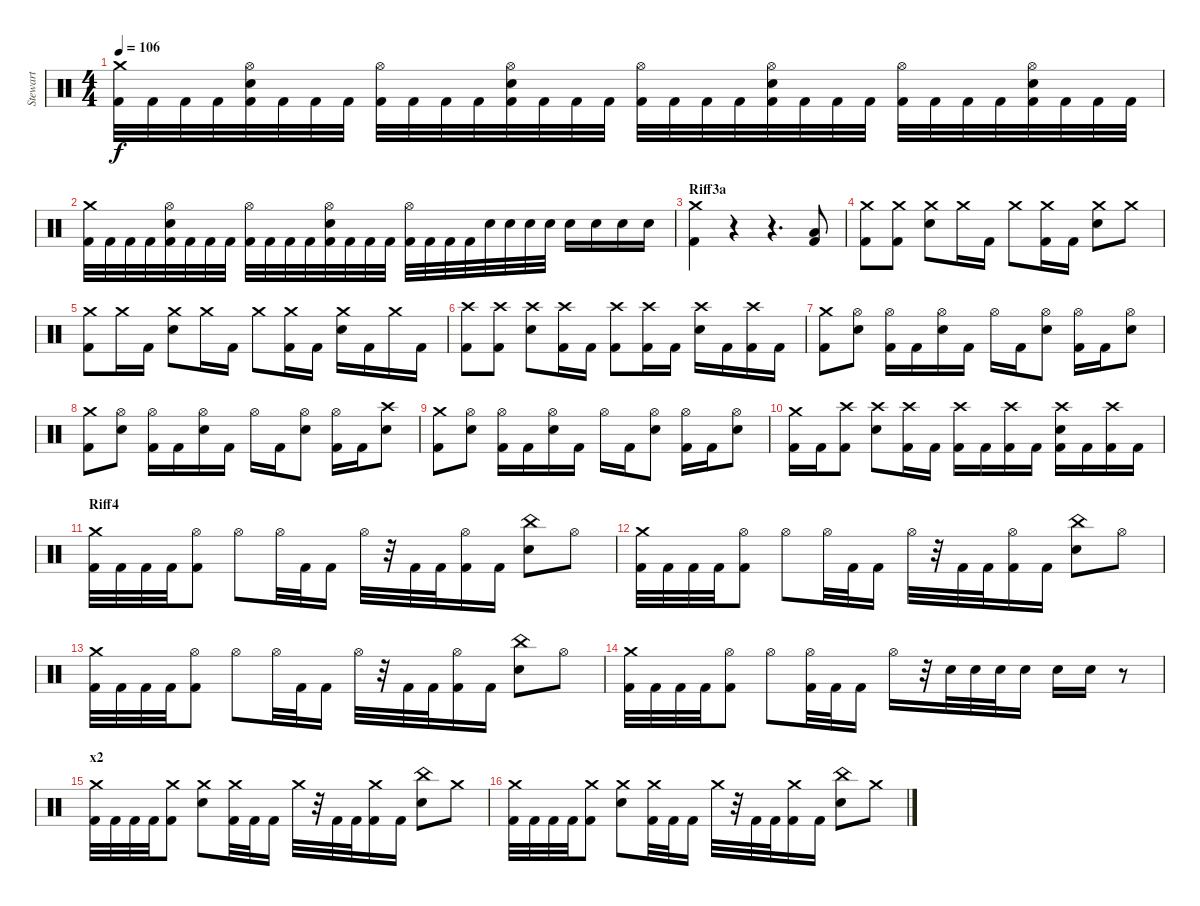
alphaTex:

\track ("Stewart" "Stewart") {instrument percussion}
\staff {score}
\articulation defaults
\ts (4 4)
\tempo 106
\clef neutral
\ks c
("Crash medium (hit)" "Kick (hit) 2").32{dy f} "Kick (hit) 2".32 "Kick (hit) 2".32 "Kick (hit) 2".32 ("Hi-Hat (open)" "Electric Snare (hit)" "Kick (hit) 2").32 "Kick (hit) 2".32 "Kick (hit) 2".32 "Kick (hit) 2".32 ("Hi-Hat (open)" "Kick (hit) 2").32 "Kick (hit) 2".32 "Kick (hit) 2".32 "Kick (hit) 2".32 ("Hi-Hat (open)" "Electric Snare (hit)" "Kick (hit) 2").32 "Kick (hit) 2".32 "Kick (hit) 2".32 "Kick (hit) 2".32 ("Hi-Hat (open)" "Kick (hit) 2").32 "Kick (hit) 2".32 "Kick (hit) 2".32 "Kick (hit) 2".32 ("Hi-Hat (open)" "Electric Snare (hit)" "Kick (hit) 2").32 "Kick (hit) 2".32 "Kick (hit) 2".32 "Kick (hit) 2".32 ("Hi-Hat (open)" "Kick (hit) 2").32 "Kick (hit) 2".32 "Kick (hit) 2".32 "Kick (hit) 2".32 ("Hi-Hat (open)" "Electric Snare (hit)" "Kick (hit) 2").32 "Kick (hit) 2".32 "Kick (hit) 2".32 "Kick (hit) 2".32 |
("Crash medium (hit)" "Kick (hit) 2").32 "Kick (hit) 2".32 "Kick (hit) 2".32 "Kick (hit) 2".32 ("Hi-Hat (open)" "Electric Snare (hit)" "Kick (hit) 2").32 "Kick (hit) 2".32 "Kick (hit) 2".32 "Kick (hit) 2".32 ("Hi-Hat (open)" "Kick (hit) 2").32 "Kick (hit) 2".32 "Kick (hit) 2".32 "Kick (hit) 2".32 ("Hi-Hat (open)" "Electric Snare (hit)" "Kick (hit) 2").32 "Kick (hit) 2".32 "Kick (hit) 2".32 "Kick (hit) 2".32 ("Hi-Hat (open)" "Kick (hit) 2").32 "Kick (hit) 2".32 "Kick (hit) 2".32 "Kick (hit) 2".32 "Electric Snare (hit)".32 "Electric Snare (hit)".32 "Electric Snare (hit)".32 "Electric Snare (hit)".32 "Electric Snare (hit)".16 "Electric Snare (hit)".16 "Electric Snare (hit)".16 "Electric Snare (hit)".16 |
\section ("" "Riff3a")
("Crash medium (hit)" "Kick (hit) 2").4 r.4 r.4{d} ("Low Tom (hit)" "Kick (hit) 2").8 |
("Crash medium (hit)" "Kick (hit) 2").8 ("Crash medium (hit)" "Kick (hit) 2").8 ("Crash medium (hit)" "Electric Snare (hit)").8 "Crash medium (hit)".16 "Kick (hit) 2".16 "Crash medium (hit)".8 ("Crash medium (hit)" "Kick (hit) 2").16 "Kick (hit) 2".16 ("Crash medium (hit)" "Electric Snare (hit)").8 "Crash medium (hit)".8 |
("Crash medium (hit)" "Kick (hit) 2").8 "Crash medium (hit)".16 "Kick (hit) 2".16 ("Crash medium (hit)" "Electric Snare (hit)").8 "Crash medium (hit)".16 "Kick (hit) 2".16 "Crash medium (hit)".8 ("Crash medium (hit)" "Kick (hit) 2").16 "Kick (hit) 2".16 ("Crash medium (hit)" "Electric Snare (hit)").16 "Kick (hit) 2".16 "Crash medium (hit)".16 "Kick (hit) 2".16 |
("Crash high (hit)" "Kick (hit) 2").8 ("Crash high (hit)" "Kick (hit) 2").8 ("Crash high (hit)" "Electric Snare (hit)").8 ("Crash high (hit)" "Kick (hit) 2").16 "Kick (hit) 2".16 ("Crash high (hit)" "Kick (hit) 2").8 ("Crash high (hit)" "Kick (hit) 2").16 "Kick (hit) 2".16 ("Crash high (hit)" "Electric Snare (hit)").16 "Kick (hit) 2".16 ("Crash high (hit)" "Kick (hit) 2").16 "Kick (hit) 2".16 |
("Crash medium (hit)" "Kick (hit) 2").8 ("Hi-Hat (open)" "Electric Snare (hit)").8 ("Hi-Hat (open)" "Kick (hit) 2").16 "Kick (hit) 2".16 ("Hi-Hat (open)" "Electric Snare (hit)").16 "Kick (hit) 2".16 "Hi-Hat (open)".16 "Kick (hit) 2".16 ("Hi-Hat (open)" "Electric Snare (hit)").8 ("Hi-Hat (open)" "Kick (hit) 2").16 "Kick (hit) 2".16 ("Hi-Hat (open)" "Electric Snare (hit)").8 |
("Crash medium (hit)" "Kick (hit) 2").8 ("Hi-Hat (open)" "Electric Snare (hit)").8 ("Hi-Hat (open)" "Kick (hit) 2").16 "Kick (hit) 2".16 ("Hi-Hat (open)" "Electric Snare (hit)").16 "Kick (hit) 2".16 "Hi-Hat (open)".16 "Kick (hit) 2".16 ("Hi-Hat (open)" "Electric Snare (hit)").8 ("Hi-Hat (open)" "Kick (hit) 2").16 "Kick (hit) 2".16 ("Crash high (hit)" "Electric Snare (hit)").8 |
("Crash medium (hit)" "Kick (hit) 2").8 ("Hi-Hat (open)" "Electric Snare (hit)").8 ("Hi-Hat (open)" "Kick (hit) 2").16 "Kick (hit) 2".16 ("Hi-Hat (open)" "Electric Snare (hit)").16 "Kick (hit) 2".16 "Hi-Hat (open)".16 "Kick (hit) 2".16 ("Hi-Hat (open)" "Electric Snare (hit)").8 ("Hi-Hat (open)" "Kick (hit) 2").16 "Kick (hit) 2".16 ("Hi-Hat (open)" "Electric Snare (hit)").8 |
("Crash medium (hit)" "Kick (hit) 2").16 "Kick (hit) 2".16 ("Crash high (hit)" "Kick (hit) 2").8 ("Crash high (hit)" "Electric Snare (hit)").8 ("Crash high (hit)" "Kick (hit) 2").16 "Kick (hit) 2".16 ("Crash high (hit)" "Kick (hit) 2").16 "Kick (hit) 2".16 ("Crash high (hit)" "Kick (hit) 2").16 "Kick (hit) 2".16 ("Crash high (hit)" "Electric Snare (hit)" "Kick (hit) 2").16 "Kick (hit) 2".16 ("Crash high (hit)" "Kick (hit) 2").16 "Kick (hit) 2".16 |
\section ("" "Riff4")
("Crash medium (hit)" "Kick (hit) 2").32 "Kick (hit) 2".32 "Kick (hit) 2".32 "Kick (hit) 2".32 ("Hi-Hat (open)" "Kick (hit) 2").8 "Hi-Hat (open)".8 "Hi-Hat (open)".32 "Kick (hit) 2".32 "Kick (hit) 2".16 "Hi-Hat (open)".32 r.32 "Kick (hit) 2".32 "Kick (hit) 2".32 ("Hi-Hat (open)" "Kick (hit) 2").16 "Kick (hit) 2".16 ("China (hit)" "Electric Snare (hit)").8 "Hi-Hat (open)".8 |
("Crash medium (hit)" "Kick (hit) 2").32 "Kick (hit) 2".32 "Kick (hit) 2".32 "Kick (hit) 2".32 ("Hi-Hat (open)" "Kick (hit) 2").8 "Hi-Hat (open)".8 "Hi-Hat (open)".32 "Kick (hit) 2".32 "Kick (hit) 2".16 "Hi-Hat (open)".32 r.32 "Kick (hit) 2".32 "Kick (hit) 2".32 ("Hi-Hat (open)" "Kick (hit) 2").16 "Kick (hit) 2".16 ("China (hit)" "Electric Snare (hit)").8 "Hi-Hat (open)".8 |
("Crash medium (hit)" "Kick (hit) 2").32 "Kick (hit) 2".32 "Kick (hit) 2".32 "Kick (hit) 2".32 ("Hi-Hat (open)" "Kick (hit) 2").8 "Hi-Hat (open)".8 "Hi-Hat (open)".32 "Kick (hit) 2".32 "Kick (hit) 2".16 "Hi-Hat (open)".32 r.32 "Kick (hit) 2".32 "Kick (hit) 2".32 ("Hi-Hat (open)" "Kick (hit) 2").16 "Kick (hit) 2".16 ("China (hit)" "Electric Snare (hit)").8 "Hi-Hat (open)".8 |
("Crash medium (hit)" "Kick (hit) 2").32 "Kick (hit) 2".32 "Kick (hit) 2".32 "Kick (hit) 2".32 ("Hi-Hat (open)" "Kick (hit) 2").8 "Hi-Hat (open)".8 ("Hi-Hat (open)" "Kick (hit) 2").32 "Kick (hit) 2".32 "Kick (hit) 2".16 "Hi-Hat (open)".16 r.32 "Electric Snare (hit)".32 "Electric Snare (hit)".32 "Electric Snare (hit)".32 "Electric Snare (hit)".16 "Electric Snare (hit)".16 "Electric Snare (hit)".16 r.8 |
\section ("" "x2")
("Crash medium (hit)" "Kick (hit) 2").32 "Kick (hit) 2".32 "Kick (hit) 2".32 "Kick (hit) 2".32 ("Crash medium (hit)" "Kick (hit) 2").8 ("Crash medium (hit)" "Electric Snare (hit)").8 ("Crash medium (hit)" "Kick (hit) 2").32 "Kick (hit) 2".32 "Kick (hit) 2".16 "Crash medium (hit)".32 r.32 "Kick (hit) 2".32 "Kick (hit) 2".32 ("Crash medium (hit)" "Kick (hit) 2").16 "Kick (hit) 2".16 ("China (hit)" "Electric Snare (hit)").8 "Crash medium (hit)".8 |
("Crash medium (hit)" "Kick (hit) 2").32 "Kick (hit) 2".32 "Kick (hit) 2".32 "Kick (hit) 2".32 ("Crash medium (hit)" "Kick (hit) 2").8 ("Crash medium (hit)" "Electric Snare (hit)").8 ("Crash medium (hit)" "Kick (hit) 2").32 "Kick (hit) 2".32 "Kick (hit) 2".16 "Crash medium (hit)".32 r.32 "Kick (hit) 2".32 "Kick (hit) 2".32 ("Crash medium (hit)" "Kick (hit) 2").16 "Kick (hit) 2".16 ("China (hit)" "Electric Snare (hit)").8 "Crash medium (hit)".8
